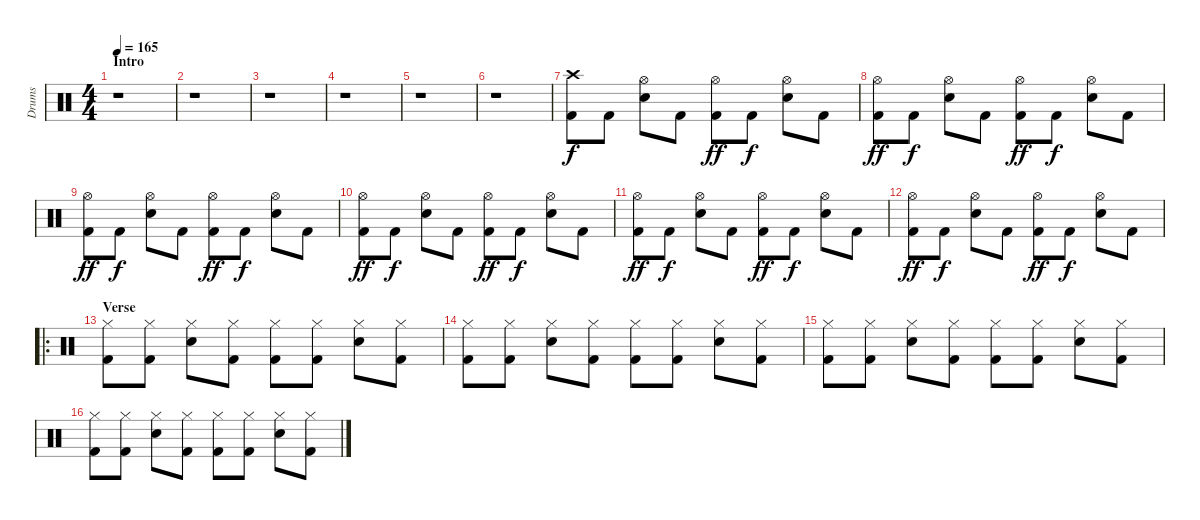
\track ("Drums" "Drums") {instrument percussion}
\staff {score}
\articulation defaults
\ts (4 4)
\section ("" "Intro")
\tempo 165
\clef neutral
\ks c
r.1{dy f} |
r.1 |
r.1 |
r.1 |
r.1 |
r.1 |
("Crash high (hit)" "Kick (hit) 2").8 "Kick (hit) 2".8 ("Hi-Hat (open)" "Electric Snare (hit)").8 "Kick (hit) 2".8 ("Hi-Hat (open)" "Kick (hit) 2").8{dy ff} "Kick (hit) 2".8{dy f} ("Hi-Hat (open)" "Electric Snare (hit)").8 "Kick (hit) 2".8 |
("Hi-Hat (open)" "Kick (hit) 2").8{dy ff} "Kick (hit) 2".8{dy f} ("Hi-Hat (open)" "Electric Snare (hit)").8 "Kick (hit) 2".8 ("Hi-Hat (open)" "Kick (hit) 2").8{dy ff} "Kick (hit) 2".8{dy f} ("Hi-Hat (open)" "Electric Snare (hit)").8 "Kick (hit) 2".8 |
("Hi-Hat (open)" "Kick (hit) 2").8{dy ff} "Kick (hit) 2".8{dy f} ("Hi-Hat (open)" "Electric Snare (hit)").8 "Kick (hit) 2".8 ("Hi-Hat (open)" "Kick (hit) 2").8{dy ff} "Kick (hit) 2".8{dy f} ("Hi-Hat (open)" "Electric Snare (hit)").8 "Kick (hit) 2".8 |
("Hi-Hat (open)" "Kick (hit) 2").8{dy ff} "Kick (hit) 2".8{dy f} ("Hi-Hat (open)" "Electric Snare (hit)").8 "Kick (hit) 2".8 ("Hi-Hat (open)" "Kick (hit) 2").8{dy ff} "Kick (hit) 2".8{dy f} ("Hi-Hat (open)" "Electric Snare (hit)").8 "Kick (hit) 2".8 |
("Hi-Hat (open)" "Kick (hit) 2").8{dy ff} "Kick (hit) 2".8{dy f} ("Hi-Hat (open)" "Electric Snare (hit)").8 "Kick (hit) 2".8 ("Hi-Hat (open)" "Kick (hit) 2").8{dy ff} "Kick (hit) 2".8{dy f} ("Hi-Hat (open)" "Electric Snare (hit)").8 "Kick (hit) 2".8 |
("Hi-Hat (open)" "Kick (hit) 2").8{dy ff} "Kick (hit) 2".8{dy f} ("Hi-Hat (open)" "Electric Snare (hit)").8 "Kick (hit) 2".8 ("Hi-Hat (open)" "Kick (hit) 2").8{dy ff} "Kick (hit) 2".8{dy f} ("Hi-Hat (open)" "Electric Snare (hit)").8 "Kick (hit) 2".8 |
\ro
\section ("" "Verse")
("Hi-Hat (closed)" "Kick (hit) 2").8 ("Hi-Hat (closed)" "Kick (hit) 2").8 ("Hi-Hat (closed)" "Electric Snare (hit)").8 ("Hi-Hat (closed)" "Kick (hit) 2").8 ("Hi-Hat (closed)" "Kick (hit) 2").8 ("Hi-Hat (closed)" "Kick (hit) 2").8 ("Hi-Hat (closed)" "Electric Snare (hit)").8 ("Hi-Hat (closed)" "Kick (hit) 2").8 |
("Hi-Hat (closed)" "Kick (hit) 2").8 ("Hi-Hat (closed)" "Kick (hit) 2").8 ("Hi-Hat (closed)" "Electric Snare (hit)").8 ("Hi-Hat (closed)" "Kick (hit) 2").8 ("Hi-Hat (closed)" "Kick (hit) 2").8 ("Hi-Hat (closed)" "Kick (hit) 2").8 ("Hi-Hat (closed)" "Electric Snare (hit)").8 ("Hi-Hat (closed)" "Kick (hit) 2").8 |
("Hi-Hat (closed)" "Kick (hit) 2").8 ("Hi-Hat (closed)" "Kick (hit) 2").8 ("Hi-Hat (closed)" "Electric Snare (hit)").8 ("Hi-Hat (closed)" "Kick (hit) 2").8 ("Hi-Hat (closed)" "Kick (hit) 2").8 ("Hi-Hat (closed)" "Kick (hit) 2").8 ("Hi-Hat (closed)" "Electric Snare (hit)").8 ("Hi-Hat (closed)" "Kick (hit) 2").8 |
("Hi-Hat (closed)" "Kick (hit) 2").8 ("Hi-Hat (closed)" "Kick (hit) 2").8 ("Hi-Hat (closed)" "Electric Snare (hit)").8 ("Hi-Hat (closed)" "Kick (hit) 2").8 ("Hi-Hat (closed)" "Kick (hit) 2").8 ("Hi-Hat (closed)" "Kick (hit) 2").8 ("Hi-Hat (closed)" "Electric Snare (hit)").8 ("Hi-Hat (closed)" "Kick (hit) 2").8
